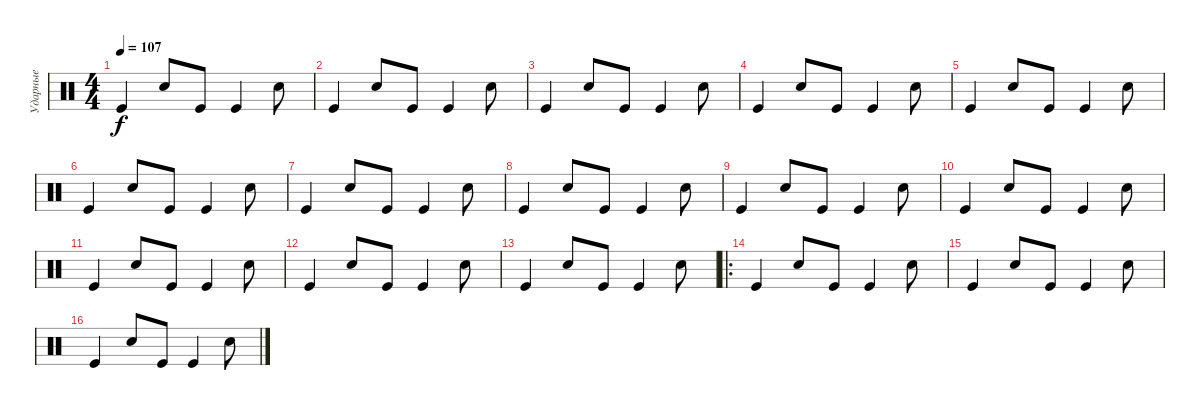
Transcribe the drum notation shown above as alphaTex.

\track ("Ударные" "Ударные") {instrument percussion}
\staff {score}
\articulation defaults
\ts (4 4)
\tempo 107
\clef neutral
\ks c "Kick (hit)".4{dy f} "Snare (hit) 2".8 "Kick (hit)".8 "Kick (hit)".4 "Snare (hit) 2".8
|
"Kick (hit)".4 "Snare (hit) 2".8 "Kick (hit)".8 "Kick (hit)".4 "Snare (hit) 2".8 |
"Kick (hit)".4 "Snare (hit) 2".8 "Kick (hit)".8 "Kick (hit)".4 "Snare (hit) 2".8 |
"Kick (hit)".4 "Snare (hit) 2".8 "Kick (hit)".8 "Kick (hit)".4 "Snare (hit) 2".8 |
"Kick (hit)".4 "Snare (hit) 2".8 "Kick (hit)".8 "Kick (hit)".4 "Snare (hit) 2".8 |
"Kick (hit)".4 "Snare (hit) 2".8 "Kick (hit)".8 "Kick (hit)".4 "Snare (hit) 2".8 |
"Kick (hit)".4 "Snare (hit) 2".8 "Kick (hit)".8 "Kick (hit)".4 "Snare (hit) 2".8 |
"Kick (hit)".4 "Snare (hit) 2".8 "Kick (hit)".8 "Kick (hit)".4 "Snare (hit) 2".8 |
"Kick (hit)".4 "Snare (hit) 2".8 "Kick (hit)".8 "Kick (hit)".4 "Snare (hit) 2".8 |
"Kick (hit)".4 "Snare (hit) 2".8 "Kick (hit)".8 "Kick (hit)".4 "Snare (hit) 2".8 |
"Kick (hit)".4 "Snare (hit) 2".8 "Kick (hit)".8 "Kick (hit)".4 "Snare (hit) 2".8 |
"Kick (hit)".4 "Snare (hit) 2".8 "Kick (hit)".8 "Kick (hit)".4 "Snare (hit) 2".8 |
"Kick (hit)".4 "Snare (hit) 2".8 "Kick (hit)".8 "Kick (hit)".4 "Snare (hit) 2".8 |
\ro "Kick (hit)".4 "Snare (hit) 2".8 "Kick (hit)".8 "Kick (hit)".4 "Snare (hit) 2".8
|
"Kick (hit)".4 "Snare (hit) 2".8 "Kick (hit)".8 "Kick (hit)".4 "Snare (hit) 2".8 |
"Kick (hit)".4 "Snare (hit) 2".8 "Kick (hit)".8 "Kick (hit)".4 "Snare (hit) 2".8
